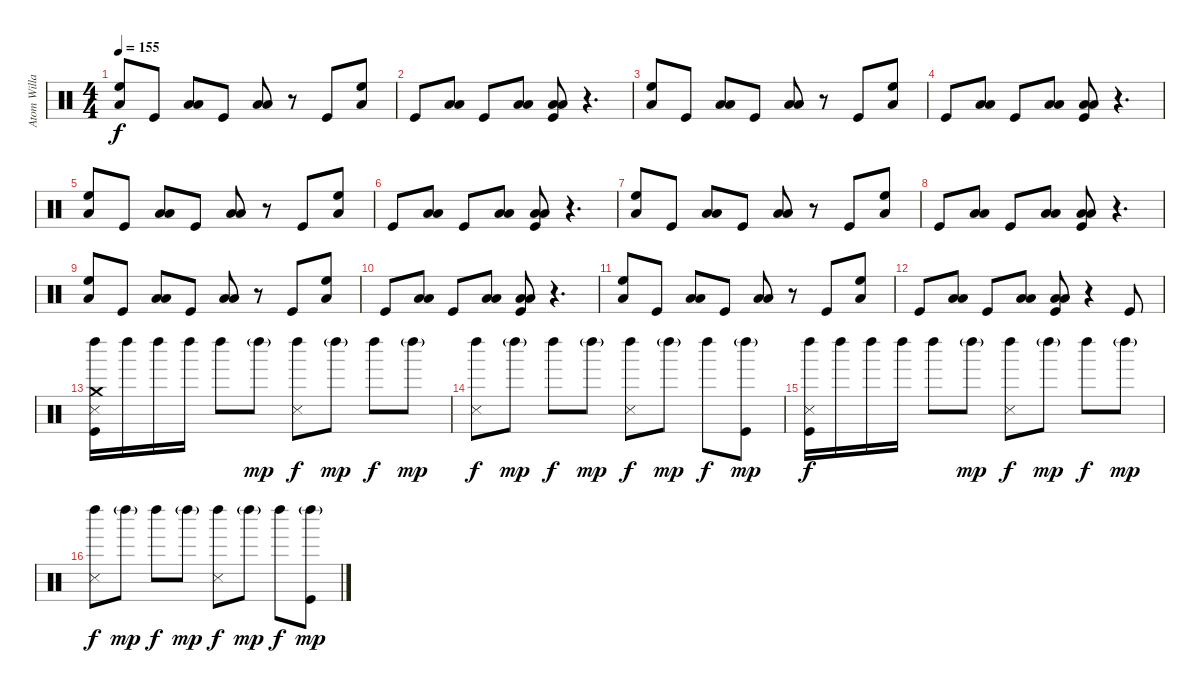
\track ("Atom Willard Drums" "Atom Willa") {instrument percussion}
\staff {score}
\articulation defaults
\ts (4 4)
\tempo 155
\clef neutral
\ks c
("High Floor Tom (hit)" "Low Tom (hit)").8{dy f} "Kick (hit)".8 ("Low Tom (hit)" "Low Tom (hit)").8 "Kick (hit)".8 ("Low Tom (hit)" "Low Tom (hit)").8 r.8 "Kick (hit)".8 ("High Floor Tom (hit)" "Low Tom (hit)").8 |
"Kick (hit)".8 ("Low Tom (hit)" "Low Tom (hit)").8 "Kick (hit)".8 ("Low Tom (hit)" "Low Tom (hit)").8 ("Low Tom (hit)" "Low Tom (hit)" "Kick (hit)").8 r.4{d} |
("High Floor Tom (hit)" "Low Tom (hit)").8 "Kick (hit)".8 ("Low Tom (hit)" "Low Tom (hit)").8 "Kick (hit)".8 ("Low Tom (hit)" "Low Tom (hit)").8 r.8 "Kick (hit)".8 ("High Floor Tom (hit)" "Low Tom (hit)").8 |
"Kick (hit)".8 ("Low Tom (hit)" "Low Tom (hit)").8 "Kick (hit)".8 ("Low Tom (hit)" "Low Tom (hit)").8 ("Low Tom (hit)" "Low Tom (hit)" "Kick (hit)").8 r.4{d} |
("High Floor Tom (hit)" "Low Tom (hit)").8 "Kick (hit)".8 ("Low Tom (hit)" "Low Tom (hit)").8 "Kick (hit)".8 ("Low Tom (hit)" "Low Tom (hit)").8 r.8 "Kick (hit)".8 ("High Floor Tom (hit)" "Low Tom (hit)").8 |
"Kick (hit)".8 ("Low Tom (hit)" "Low Tom (hit)").8 "Kick (hit)".8 ("Low Tom (hit)" "Low Tom (hit)").8 ("Low Tom (hit)" "Low Tom (hit)" "Kick (hit)").8 r.4{d} |
("High Floor Tom (hit)" "Low Tom (hit)").8 "Kick (hit)".8 ("Low Tom (hit)" "Low Tom (hit)").8 "Kick (hit)".8 ("Low Tom (hit)" "Low Tom (hit)").8 r.8 "Kick (hit)".8 ("High Floor Tom (hit)" "Low Tom (hit)").8 |
"Kick (hit)".8 ("Low Tom (hit)" "Low Tom (hit)").8 "Kick (hit)".8 ("Low Tom (hit)" "Low Tom (hit)").8 ("Low Tom (hit)" "Low Tom (hit)" "Kick (hit)").8 r.4{d} |
("High Floor Tom (hit)" "Low Tom (hit)").8 "Kick (hit)".8 ("Low Tom (hit)" "Low Tom (hit)").8 "Kick (hit)".8 ("Low Tom (hit)" "Low Tom (hit)").8 r.8 "Kick (hit)".8 ("High Floor Tom (hit)" "Low Tom (hit)").8 |
"Kick (hit)".8 ("Low Tom (hit)" "Low Tom (hit)").8 "Kick (hit)".8 ("Low Tom (hit)" "Low Tom (hit)").8 ("Low Tom (hit)" "Low Tom (hit)" "Kick (hit)").8 r.4{d} |
("High Floor Tom (hit)" "Low Tom (hit)").8 "Kick (hit)".8 ("Low Tom (hit)" "Low Tom (hit)").8 "Kick (hit)".8 ("Low Tom (hit)" "Low Tom (hit)").8 r.8 "Kick (hit)".8 ("High Floor Tom (hit)" "Low Tom (hit)").8 |
"Kick (hit)".8 ("Low Tom (hit)" "Low Tom (hit)").8 "Kick (hit)".8 ("Low Tom (hit)" "Low Tom (hit)").8 ("Low Tom (hit)" "Low Tom (hit)" "Kick (hit)").8 r.4 "Kick (hit)".8 |
("Kick (hit)" "Crash medium (hit)" "Left Maraca (hit)" "Snare (side stick) 3").16 "Left Maraca (hit)".16 "Left Maraca (hit)".16 "Left Maraca (hit)".16 "Left Maraca (hit)".8 "Left Maraca (hit)"{g}.8{dy mp} ("Left Maraca (hit)" "Snare (side stick) 3").8{dy f} "Left Maraca (hit)"{g}.8{dy mp} "Left Maraca (hit)".8{dy f} "Left Maraca (hit)"{g}.8{dy mp} |
("Left Maraca (hit)" "Snare (side stick) 3").8{dy f} "Left Maraca (hit)"{g}.8{dy mp} "Left Maraca (hit)".8{dy f} "Left Maraca (hit)"{g}.8{dy mp} ("Left Maraca (hit)" "Snare (side stick) 3").8{dy f} "Left Maraca (hit)"{g}.8{dy mp} "Left Maraca (hit)".8{dy f} ("Left Maraca (hit)"{g} "Kick (hit)").8{dy mp} |
("Kick (hit)" "Left Maraca (hit)" "Snare (side stick) 3").16{dy f} "Left Maraca (hit)".16 "Left Maraca (hit)".16 "Left Maraca (hit)".16 "Left Maraca (hit)".8 "Left Maraca (hit)"{g}.8{dy mp} ("Left Maraca (hit)" "Snare (side stick) 3").8{dy f} "Left Maraca (hit)"{g}.8{dy mp} "Left Maraca (hit)".8{dy f} "Left Maraca (hit)"{g}.8{dy mp} |
("Left Maraca (hit)" "Snare (side stick) 3").8{dy f} "Left Maraca (hit)"{g}.8{dy mp} "Left Maraca (hit)".8{dy f} "Left Maraca (hit)"{g}.8{dy mp} ("Left Maraca (hit)" "Snare (side stick) 3").8{dy f} "Left Maraca (hit)"{g}.8{dy mp} "Left Maraca (hit)".8{dy f} ("Left Maraca (hit)"{g} "Kick (hit)").8{dy mp}
